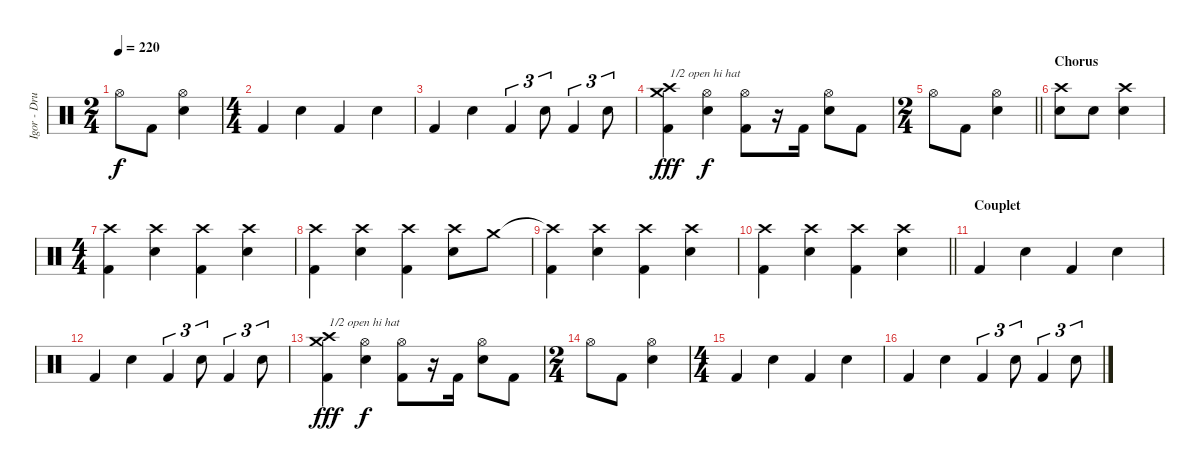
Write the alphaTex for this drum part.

\track ("Igor - Drums" "Igor - Dru") {instrument percussion}
\staff {score}
\articulation defaults
\ts (2 4)
\tempo 220
\clef neutral
\ks c "Hi-Hat (open)".8{dy f} "Kick (hit) 2".8
("Hi-Hat (open)" "Electric Snare (hit)").4 |
\ts (4 4)
"Kick (hit) 2".4 "Electric Snare (hit)".4 "Kick (hit) 2".4 "Electric Snare (hit)".4 |
"Kick (hit) 2".4 "Electric Snare (hit)".4 "Kick (hit) 2".4{tu (3 2)} "Electric Snare (hit)".8{tu (3 2)} "Kick (hit) 2".4{tu (3 2)} "Electric Snare (hit)".8{tu (3 2)} |
("Crash high (hit)" "Crash medium (hit)" "Kick (hit) 2").4{txt "1/2 open hi hat" dy fff} ("Hi-Hat (open)" "Electric Snare (hit)").4{dy f} ("Hi-Hat (open)" "Kick (hit) 2").8 r.16 "Kick (hit) 2".16 ("Hi-Hat (open)" "Electric Snare (hit)").8 "Kick (hit) 2".8 |
\ts (2 4)
\barLineRight lightlight "Hi-Hat (open)".8 "Kick (hit) 2".8
("Hi-Hat (open)" "Electric Snare (hit)").4 |
\section ("" "Chorus")
("Crash high (hit)" "Electric Snare (hit)").8 "Electric Snare (hit)".8 ("Crash high (hit)" "Electric Snare (hit)").4 |
\ts (4 4)
("Crash high (hit)" "Kick (hit) 2").4 ("Crash high (hit)" "Snare (hit) 2").4 ("Crash high (hit)" "Kick (hit) 2").4 ("Crash high (hit)" "Snare (hit) 2").4 |
("Crash high (hit)" "Kick (hit) 2").4 ("Crash high (hit)" "Snare (hit) 2").4 ("Crash high (hit)" "Kick (hit) 2").4 ("Crash high (hit)" "Snare (hit) 2").8 "Crash medium (hit)".8 |
("Crash high (hit)"{t} "Kick (hit) 2").4 ("Crash high (hit)" "Snare (hit) 2").4 ("Crash high (hit)" "Kick (hit) 2").4 ("Crash high (hit)" "Snare (hit) 2").4 |
\barLineRight lightlight
("Crash high (hit)" "Kick (hit) 2").4 ("Crash high (hit)" "Snare (hit) 2").4 ("Crash high (hit)" "Kick (hit) 2").4 ("Crash high (hit)" "Snare (hit) 2").4 |
\section ("" "Couplet")
"Kick (hit) 2".4 "Electric Snare (hit)".4 "Kick (hit) 2".4 "Electric Snare (hit)".4 |
"Kick (hit) 2".4 "Electric Snare (hit)".4 "Kick (hit) 2".4{tu (3 2)} "Electric Snare (hit)".8{tu (3 2)} "Kick (hit) 2".4{tu (3 2)} "Electric Snare (hit)".8{tu (3 2)} |
("Crash high (hit)" "Crash medium (hit)" "Kick (hit) 2").4{txt "1/2 open hi hat" dy fff} ("Hi-Hat (open)" "Electric Snare (hit)").4{dy f} ("Hi-Hat (open)" "Kick (hit) 2").8 r.16 "Kick (hit) 2".16 ("Hi-Hat (open)" "Electric Snare (hit)").8 "Kick (hit) 2".8 |
\ts (2 4)
"Hi-Hat (open)".8 "Kick (hit) 2".8 ("Hi-Hat (open)" "Electric Snare (hit)").4 |
\ts (4 4)
"Kick (hit) 2".4 "Electric Snare (hit)".4 "Kick (hit) 2".4 "Electric Snare (hit)".4 |
"Kick (hit) 2".4 "Electric Snare (hit)".4 "Kick (hit) 2".4{tu (3 2)} "Electric Snare (hit)".8{tu (3 2)} "Kick (hit) 2".4{tu (3 2)} "Electric Snare (hit)".8{tu (3 2)}
